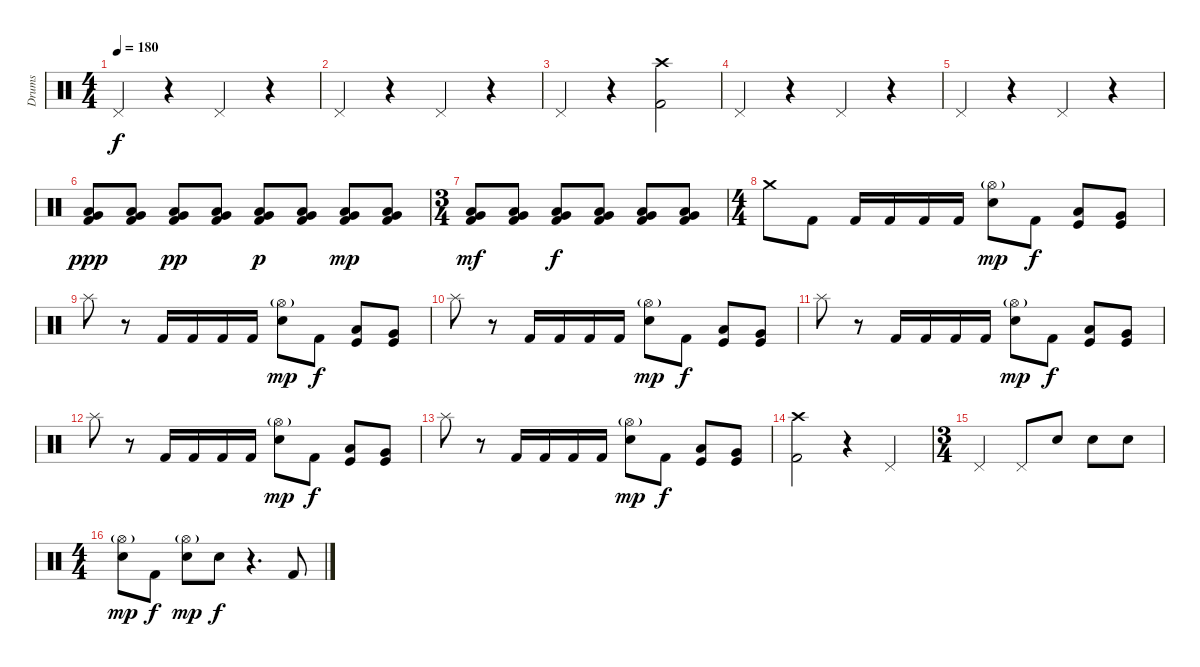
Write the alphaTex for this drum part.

\track ("Drums" "Drums") {instrument percussion}
\staff {score}
\articulation defaults
\ts (4 4)
\tempo 180
\clef neutral
\ks c "Pedal Hi-Hat (hit)".4{dy f}
r.4 "Pedal Hi-Hat (hit)".4 r.4 |
"Pedal Hi-Hat (hit)".4 r.4 "Pedal Hi-Hat (hit)".4 r.4 |
"Pedal Hi-Hat (hit)".4 r.4 ("Crash high (hit)" "Kick (hit) 2").2 |
"Pedal Hi-Hat (hit)".4 r.4 "Pedal Hi-Hat (hit)".4 r.4 |
"Pedal Hi-Hat (hit)".4 r.4 "Pedal Hi-Hat (hit)".4 r.4 |
("Very Low Tom (hit)" "Low Tom (hit)" "Kick (hit) 2").8{dy ppp} ("Very Low Tom (hit)" "Low Tom (hit)" "Kick (hit) 2").8 ("Very Low Tom (hit)" "Low Tom (hit)" "Kick (hit) 2").8{dy pp} ("Very Low Tom (hit)" "Low Tom (hit)" "Kick (hit) 2").8 ("Very Low Tom (hit)" "Low Tom (hit)" "Kick (hit) 2").8{dy p} ("Very Low Tom (hit)" "Low Tom (hit)" "Kick (hit) 2").8 ("Very Low Tom (hit)" "Low Tom (hit)" "Kick (hit) 2").8{dy mp} ("Very Low Tom (hit)" "Low Tom (hit)" "Kick (hit) 2").8 |
\ts (3 4)
("Very Low Tom (hit)" "Low Tom (hit)" "Kick (hit) 2").8{dy mf} ("Very Low Tom (hit)" "Low Tom (hit)" "Kick (hit) 2").8 ("Very Low Tom (hit)" "Low Tom (hit)" "Kick (hit) 2").8{dy f} ("Very Low Tom (hit)" "Low Tom (hit)" "Kick (hit) 2").8 ("Very Low Tom (hit)" "Low Tom (hit)" "Kick (hit) 2").8 ("Very Low Tom (hit)" "Low Tom (hit)" "Kick (hit) 2").8 |
\ts (4 4)
"Crash medium (hit)".8 "Kick (hit) 2".8 "Kick (hit) 2".16 "Kick (hit) 2".16 "Kick (hit) 2".16 "Kick (hit) 2".16 ("Hi-Hat (open)"{g} "Electric Snare (hit)").8{dy mp} "Kick (hit) 2".8{dy f} ("Low Tom (hit)" "Kick (hit)").8 ("Very Low Tom (hit)" "Kick (hit)").8 |
"Splash (hit)".8 r.8 "Kick (hit) 2".16 "Kick (hit) 2".16 "Kick (hit) 2".16 "Kick (hit) 2".16 ("Hi-Hat (open)"{g} "Electric Snare (hit)").8{dy mp} "Kick (hit) 2".8{dy f} ("Low Tom (hit)" "Kick (hit)").8 ("Very Low Tom (hit)" "Kick (hit)").8 |
"Splash (hit)".8 r.8 "Kick (hit) 2".16 "Kick (hit) 2".16 "Kick (hit) 2".16 "Kick (hit) 2".16 ("Hi-Hat (open)"{g} "Electric Snare (hit)").8{dy mp} "Kick (hit) 2".8{dy f} ("Low Tom (hit)" "Kick (hit)").8 ("Very Low Tom (hit)" "Kick (hit)").8 |
"Splash (hit)".8 r.8 "Kick (hit) 2".16 "Kick (hit) 2".16 "Kick (hit) 2".16 "Kick (hit) 2".16 ("Hi-Hat (open)"{g} "Electric Snare (hit)").8{dy mp} "Kick (hit) 2".8{dy f} ("Low Tom (hit)" "Kick (hit)").8 ("Very Low Tom (hit)" "Kick (hit)").8 |
"Splash (hit)".8 r.8 "Kick (hit) 2".16 "Kick (hit) 2".16 "Kick (hit) 2".16 "Kick (hit) 2".16 ("Hi-Hat (open)"{g} "Electric Snare (hit)").8{dy mp} "Kick (hit) 2".8{dy f} ("Low Tom (hit)" "Kick (hit)").8 ("Very Low Tom (hit)" "Kick (hit)").8 |
"Splash (hit)".8 r.8 "Kick (hit) 2".16 "Kick (hit) 2".16 "Kick (hit) 2".16 "Kick (hit) 2".16 ("Hi-Hat (open)"{g} "Electric Snare (hit)").8{dy mp} "Kick (hit) 2".8{dy f} ("Low Tom (hit)" "Kick (hit)").8 ("Very Low Tom (hit)" "Kick (hit)").8 |
("Crash high (hit)" "Kick (hit) 2").2 r.4 "Pedal Hi-Hat (hit)".4 |
\ts (3 4)
"Pedal Hi-Hat (hit)".4 "Pedal Hi-Hat (hit)".8 "Electric Snare (hit)".8 "Electric Snare (hit)".8 "Electric Snare (hit)".8 |
\ts (4 4)
("Hi-Hat (open)"{g} "Electric Snare (hit)").8{dy mp} "Kick (hit) 2".8{dy f} ("Hi-Hat (open)"{g} "Electric Snare (hit)").8{dy mp} "Electric Snare (hit)".8{dy f} r.4{d} "Kick (hit) 2".8
